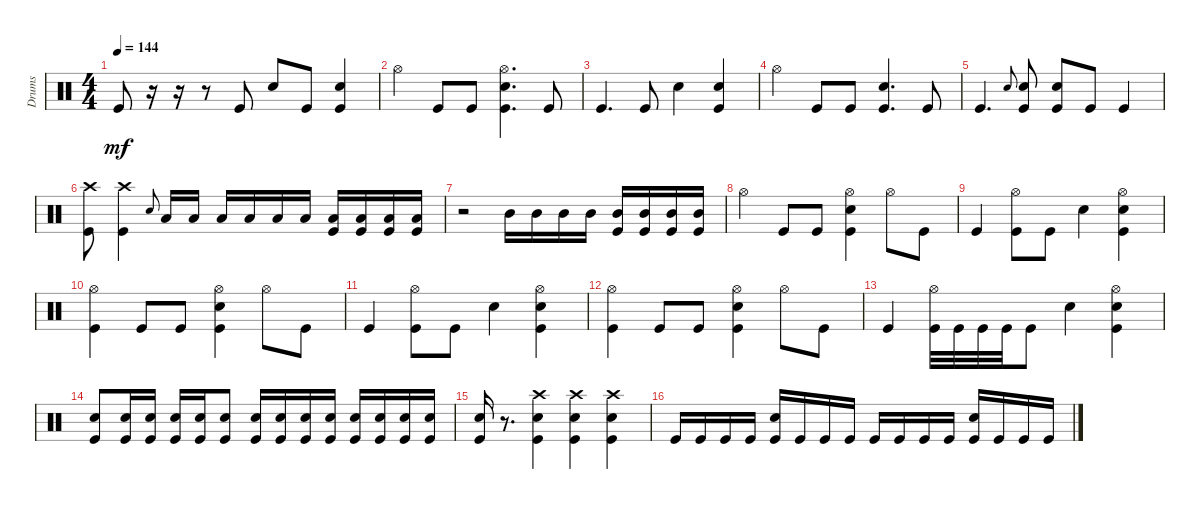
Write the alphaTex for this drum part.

\track ("Drums" "Drums") {instrument percussion}
\staff {score}
\articulation defaults
\ts (4 4)
\tempo 144
\clef neutral
\ks c "Kick (hit)".8{dy mf}
r.16 r.16 r.8 "Kick (hit)".8 "Snare (hit) 2".8 "Kick (hit)".8 ("Kick (hit)" "Snare (hit) 2").4 |
"Hi-Hat (open)".4 "Kick (hit)".8 "Kick (hit)".8 ("Kick (hit)" "Snare (hit) 2" "Hi-Hat (open)").4{d} "Kick (hit)".8 |
"Kick (hit)".4{d} "Kick (hit)".8 "Snare (hit) 2".4 ("Kick (hit)" "Snare (hit) 2").4 |
"Hi-Hat (open)".4 "Kick (hit)".8 "Kick (hit)".8 ("Kick (hit)" "Snare (hit) 2").4{d} "Kick (hit)".8 |
"Kick (hit)".4{d} "Snare (hit)".8{gr onbeat} ("Kick (hit)" "Snare (hit) 2").8 ("Kick (hit)" "Snare (hit) 2").8 "Kick (hit)".8 "Kick (hit)".4 |
("Kick (hit)" "Crash high (hit)").8 ("Kick (hit)" "Crash high (hit)").4 "Snare (hit)".8{gr onbeat} "Low Tom (hit)".16 "Low Tom (hit)".16 "Low Tom (hit)".16 "Low Tom (hit)".16 "Low Tom (hit)".16 "Low Tom (hit)".16 ("Low Tom (hit)" "Kick (hit)").16 ("Low Tom (hit)" "Kick (hit)").16 ("Low Tom (hit)" "Kick (hit)").16 ("Low Tom (hit)" "Kick (hit)").16 |
r.2 "Mid Tom (hit)".16 "Mid Tom (hit)".16 "Mid Tom (hit)".16 "Mid Tom (hit)".16 ("Kick (hit)" "Mid Tom (hit)").16 ("Kick (hit)" "Mid Tom (hit)").16 ("Kick (hit)" "Mid Tom (hit)").16 ("Kick (hit)" "Mid Tom (hit)").16 |
"Hi-Hat (open)".4 "Kick (hit)".8 "Kick (hit)".8 ("Kick (hit)" "Snare (hit) 2" "Hi-Hat (open)").4 "Hi-Hat (open)".8 "Kick (hit)".8 |
"Kick (hit)".4 ("Kick (hit)" "Hi-Hat (open)").8 "Kick (hit)".8 "Snare (hit) 2".4 ("Kick (hit)" "Snare (hit) 2" "Hi-Hat (open)").4 |
("Kick (hit)" "Hi-Hat (open)").4 "Kick (hit)".8 "Kick (hit)".8 ("Kick (hit)" "Snare (hit) 2" "Hi-Hat (open)").4 "Hi-Hat (open)".8 "Kick (hit)".8 |
"Kick (hit)".4 ("Kick (hit)" "Hi-Hat (open)").8 "Kick (hit)".8 "Snare (hit) 2".4 ("Kick (hit)" "Snare (hit) 2" "Hi-Hat (open)").4 |
("Kick (hit)" "Hi-Hat (open)").4 "Kick (hit)".8 "Kick (hit)".8 ("Kick (hit)" "Snare (hit) 2" "Hi-Hat (open)").4 "Hi-Hat (open)".8 "Kick (hit)".8 |
"Kick (hit)".4 ("Kick (hit)" "Hi-Hat (open)").32 "Kick (hit)".32 "Kick (hit)".32 "Kick (hit)".32 "Kick (hit)".8 "Snare (hit) 2".4 ("Kick (hit)" "Snare (hit) 2" "Hi-Hat (open)").4 |
("Kick (hit)" "Snare (hit) 2").8 ("Kick (hit)" "Snare (hit) 2").16 ("Kick (hit)" "Snare (hit) 2").16 ("Kick (hit)" "Snare (hit) 2").16 ("Kick (hit)" "Snare (hit) 2").16 ("Kick (hit)" "Snare (hit) 2").8 ("Kick (hit)" "Snare (hit) 2").16 ("Kick (hit)" "Snare (hit) 2").16 ("Kick (hit)" "Snare (hit) 2").16 ("Kick (hit)" "Snare (hit) 2").16 ("Kick (hit)" "Snare (hit) 2").16 ("Kick (hit)" "Snare (hit) 2").16 ("Kick (hit)" "Snare (hit) 2").16 ("Kick (hit)" "Snare (hit) 2").16 |
("Kick (hit)" "Snare (hit) 2").16 r.8{d} ("Kick (hit)" "Crash high (hit)" "Snare (hit) 2").4 ("Kick (hit)" "Crash high (hit)" "Snare (hit) 2").4 ("Kick (hit)" "Crash high (hit)" "Snare (hit) 2").4 |
"Kick (hit)".16 "Kick (hit)".16 "Kick (hit)".16 "Kick (hit)".16 ("Kick (hit)" "Snare (hit) 2").16 "Kick (hit)".16 "Kick (hit)".16 "Kick (hit)".16 "Kick (hit)".16 "Kick (hit)".16 "Kick (hit)".16 "Kick (hit)".16 ("Kick (hit)" "Snare (hit) 2").16 "Kick (hit)".16 "Kick (hit)".16 "Kick (hit)".16
